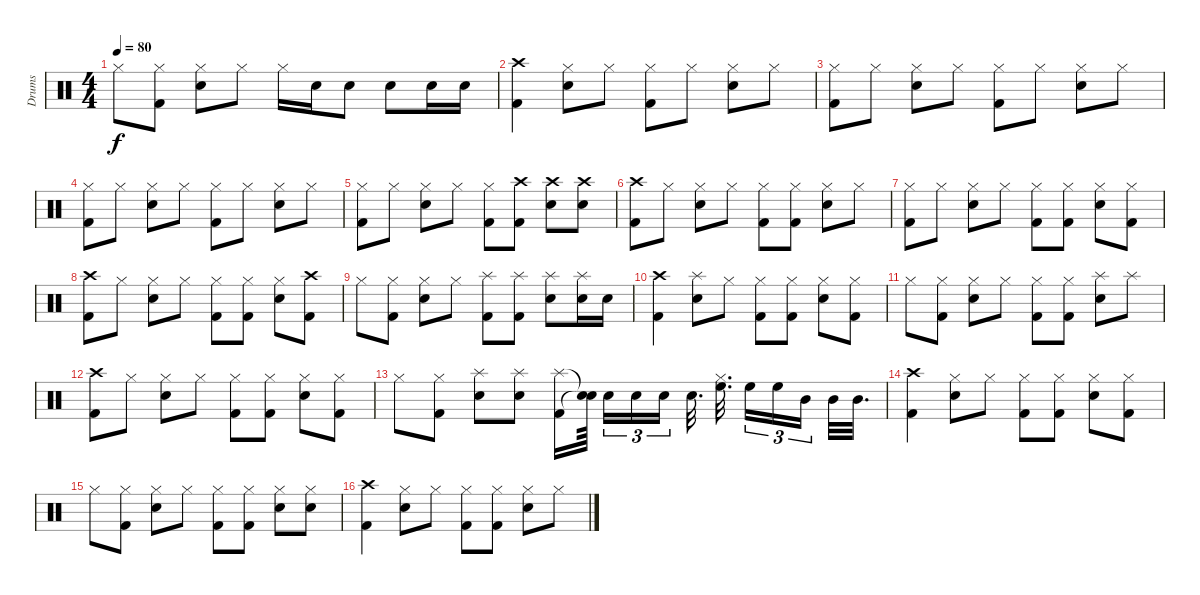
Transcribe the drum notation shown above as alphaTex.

\track ("Drums         " "Drums     ") {instrument percussion}
\staff {score}
\articulation defaults
\ts (4 4)
\tempo 80
\clef neutral
\ks c "Hi-Hat (closed)".8{dy f}
("Kick (hit) 2" "Hi-Hat (closed)").8 ("Snare (hit) 2" "Hi-Hat (closed)").8 "Hi-Hat (closed)".8 "Hi-Hat (closed)".16 "Snare (hit) 2".16 "Snare (hit) 2".8 "Snare (hit) 2".8 "Snare (hit) 2".16 "Snare (hit) 2".16 |
("Kick (hit) 2" "Crash high (hit)").4 ("Snare (hit) 2" "Hi-Hat (closed)").8 "Hi-Hat (closed)".8 ("Kick (hit) 2" "Hi-Hat (closed)").8 "Hi-Hat (closed)".8 ("Snare (hit) 2" "Hi-Hat (closed)").8 "Hi-Hat (closed)".8 |
("Kick (hit) 2" "Hi-Hat (closed)").8 "Hi-Hat (closed)".8 ("Snare (hit) 2" "Hi-Hat (closed)").8 "Hi-Hat (closed)".8 ("Kick (hit) 2" "Hi-Hat (closed)").8 "Hi-Hat (closed)".8 ("Snare (hit) 2" "Hi-Hat (closed)").8 "Hi-Hat (closed)".8 |
("Kick (hit) 2" "Hi-Hat (closed)").8 "Hi-Hat (closed)".8 ("Snare (hit) 2" "Hi-Hat (closed)").8 "Hi-Hat (closed)".8 ("Kick (hit) 2" "Hi-Hat (closed)").8 "Hi-Hat (closed)".8 ("Snare (hit) 2" "Hi-Hat (closed)").8 "Hi-Hat (closed)".8 |
("Kick (hit) 2" "Hi-Hat (closed)").8 "Hi-Hat (closed)".8 ("Snare (hit) 2" "Hi-Hat (closed)").8 "Hi-Hat (closed)".8 ("Kick (hit) 2" "Hi-Hat (closed)").8 ("Kick (hit) 2" "Crash high (hit)").8 ("Snare (hit) 2" "Crash high (hit)").8 ("Snare (hit) 2" "Crash high (hit)").8 |
("Kick (hit) 2" "Crash high (hit)").8 "Hi-Hat (closed)".8 ("Snare (hit) 2" "Hi-Hat (closed)").8 "Hi-Hat (closed)".8 ("Kick (hit) 2" "Hi-Hat (closed)").8 ("Kick (hit) 2" "Hi-Hat (closed)").8 ("Snare (hit) 2" "Hi-Hat (closed)").8 "Hi-Hat (closed)".8 |
("Kick (hit) 2" "Hi-Hat (closed)").8 "Hi-Hat (closed)".8 ("Snare (hit) 2" "Hi-Hat (closed)").8 "Hi-Hat (closed)".8 ("Kick (hit) 2" "Hi-Hat (closed)").8 ("Kick (hit) 2" "Hi-Hat (closed)").8 ("Snare (hit) 2" "Hi-Hat (closed)").8 ("Kick (hit) 2" "Hi-Hat (closed)").8 |
("Kick (hit) 2" "Crash high (hit)").8 "Hi-Hat (closed)".8 ("Snare (hit) 2" "Hi-Hat (closed)").8 "Hi-Hat (closed)".8 ("Kick (hit) 2" "Hi-Hat (closed)").8 ("Kick (hit) 2" "Hi-Hat (closed)").8 ("Snare (hit) 2" "Hi-Hat (closed)").8 ("Kick (hit) 2" "Crash high (hit)").8 |
"Hi-Hat (closed)".8 ("Kick (hit) 2" "Hi-Hat (closed)").8 ("Snare (hit) 2" "Hi-Hat (closed)").8 "Hi-Hat (closed)".8 ("Kick (hit) 2" "Splash (hit)").8 ("Kick (hit) 2" "Splash (hit)").8 ("Snare (hit) 2" "Splash (hit)").8 ("Snare (hit) 2" "Splash (hit)").16 "Snare (hit) 2".16 |
("Kick (hit) 2" "Crash high (hit)").4 ("Snare (hit) 2" "Splash (hit)").8 "Hi-Hat (closed)".8 ("Kick (hit) 2" "Hi-Hat (closed)").8 ("Kick (hit) 2" "Hi-Hat (closed)").8 ("Snare (hit) 2" "Hi-Hat (closed)").8 ("Kick (hit) 2" "Hi-Hat (closed)").8 |
"Hi-Hat (closed)".8 ("Kick (hit) 2" "Hi-Hat (closed)").8 ("Snare (hit) 2" "Hi-Hat (closed)").8 "Hi-Hat (closed)".8 ("Kick (hit) 2" "Hi-Hat (closed)").8 ("Kick (hit) 2" "Hi-Hat (closed)").8 ("Snare (hit) 2" "Splash (hit)").8 "Splash (hit)".8 |
("Kick (hit) 2" "Crash high (hit)").8 "Hi-Hat (closed)".8 ("Snare (hit) 2" "Hi-Hat (closed)").8 "Hi-Hat (closed)".8 ("Kick (hit) 2" "Hi-Hat (closed)").8 ("Kick (hit) 2" "Hi-Hat (closed)").8 ("Snare (hit) 2" "Hi-Hat (closed)").8 ("Kick (hit) 2" "Hi-Hat (closed)").8 |
"Hi-Hat (closed)".8 ("Kick (hit) 2" "Hi-Hat (closed)").8 ("Snare (hit) 2" "Splash (hit)").8 ("Snare (hit) 2" "Splash (hit)").8 ("Kick (hit) 2" "Splash (hit)").16 ("Snare (hit)"{t} "Snare (hit)"{t}).64{beam splitsecondary} "Snare (hit) 2".16{tu (3 2)} "Snare (hit) 2".16{tu (3 2)} "Snare (hit) 2".16{tu (3 2) beam splitsecondary} "Snare (hit) 2".32{d} ("High Floor Tom (hit)" "Hi-Hat (closed)").32{d beam splitsecondary} "High Floor Tom (hit)".16{tu (3 2)} "High Floor Tom (hit)".16{tu (3 2)} "Mid Tom (hit)".16{tu (3 2) beam splitsecondary} "Mid Tom (hit)".32 "Mid Tom (hit)".32{d} |
("Kick (hit) 2" "Crash high (hit)").4 ("Snare (hit) 2" "Hi-Hat (closed)").8 "Hi-Hat (closed)".8 ("Kick (hit) 2" "Hi-Hat (closed)").8 ("Kick (hit) 2" "Hi-Hat (closed)").8 ("Snare (hit) 2" "Hi-Hat (closed)").8 ("Kick (hit) 2" "Hi-Hat (closed)").8 |
"Hi-Hat (closed)".8 ("Kick (hit) 2" "Hi-Hat (closed)").8 ("Snare (hit) 2" "Hi-Hat (closed)").8 "Hi-Hat (closed)".8 ("Kick (hit) 2" "Hi-Hat (closed)").8 ("Kick (hit) 2" "Hi-Hat (closed)").8 ("Snare (hit) 2" "Hi-Hat (closed)").8 ("Snare (hit) 2" "Hi-Hat (closed)").8 |
("Kick (hit) 2" "Crash high (hit)").4 ("Snare (hit) 2" "Hi-Hat (closed)").8 "Hi-Hat (closed)".8 ("Kick (hit) 2" "Hi-Hat (closed)").8 ("Kick (hit) 2" "Hi-Hat (closed)").8 ("Snare (hit) 2" "Hi-Hat (closed)").8 "Hi-Hat (closed)".8
